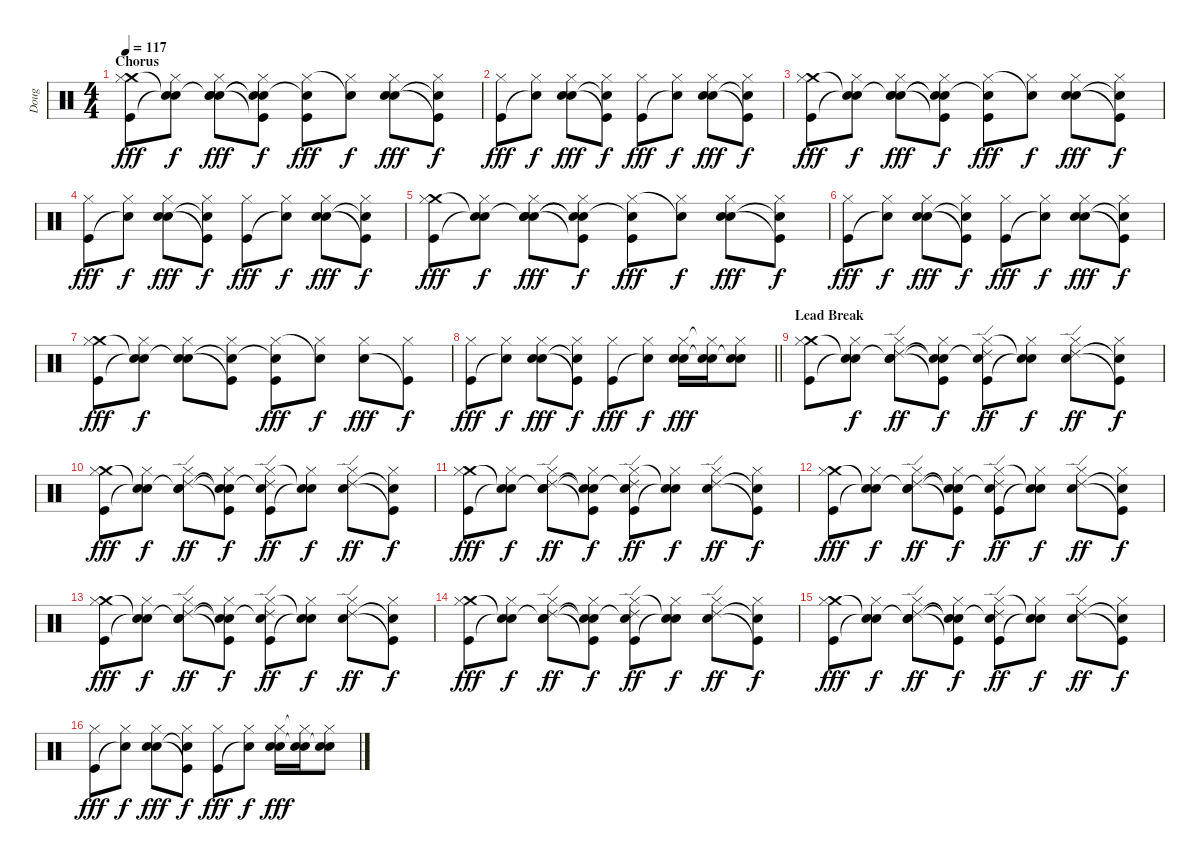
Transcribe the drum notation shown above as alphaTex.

\track ("Doug" "Doug") {instrument percussion}
\staff {score}
\articulation defaults
\ts (4 4)
\section ("" "Chorus")
\tempo 117
\clef neutral
\ks c
("Crash medium (hit)" "Hi-Hat (closed)" "Kick (hit)").8{dy fff} ("Snare (hit)"{t} "Hi-Hat (closed)" "Snare (hit)"{t}).8{dy f} ("Snare (hit)"{t} "Hi-Hat (closed)" "Snare (hit) 2" "Hand Clap (hit)").8{dy fff} ("Snare (hit)"{t} "Hi-Hat (closed)" "Kick (hit)"{t} "Snare (hit)"{t}).8{dy f} ("Snare (hit)"{t} "Hi-Hat (closed)" "Kick (hit)").8{dy fff} ("Hi-Hat (closed)" "Snare (hit)"{t}).8{dy f} ("Hi-Hat (closed)" "Snare (hit) 2" "Hand Clap (hit)").8{dy fff} ("Hi-Hat (closed)" "Kick (hit)"{t} "Snare (hit)"{t}).8{dy f} |
("Hi-Hat (closed)" "Kick (hit)").8{dy fff} ("Hi-Hat (closed)" "Snare (hit)"{t}).8{dy f} ("Hand Clap (hit)" "Hi-Hat (closed)" "Snare (hit) 2").8{dy fff} ("Snare (hit)"{t} "Hi-Hat (closed)" "Kick (hit)"{t}).8{dy f} ("Hi-Hat (closed)" "Kick (hit)").8{dy fff} ("Hi-Hat (closed)" "Snare (hit)"{t}).8{dy f} ("Hand Clap (hit)" "Hi-Hat (closed)" "Snare (hit) 2").8{dy fff} ("Snare (hit)"{t} "Hi-Hat (closed)" "Kick (hit)"{t}).8{dy f} |
("Crash medium (hit)" "Hi-Hat (closed)" "Kick (hit)").8{dy fff} ("Snare (hit)"{t} "Hi-Hat (closed)" "Snare (hit)"{t}).8{dy f} ("Snare (hit)"{t} "Hi-Hat (closed)" "Snare (hit) 2" "Hand Clap (hit)").8{dy fff} ("Snare (hit)"{t} "Hi-Hat (closed)" "Kick (hit)"{t} "Snare (hit)"{t}).8{dy f} ("Snare (hit)"{t} "Hi-Hat (closed)" "Kick (hit)").8{dy fff} ("Hi-Hat (closed)" "Snare (hit)"{t}).8{dy f} ("Hi-Hat (closed)" "Snare (hit) 2" "Hand Clap (hit)").8{dy fff} ("Hi-Hat (closed)" "Kick (hit)"{t} "Snare (hit)"{t}).8{dy f} |
("Hi-Hat (closed)" "Kick (hit)").8{dy fff} ("Hi-Hat (closed)" "Snare (hit)"{t}).8{dy f} ("Hand Clap (hit)" "Hi-Hat (closed)" "Snare (hit) 2").8{dy fff} ("Snare (hit)"{t} "Hi-Hat (closed)" "Kick (hit)"{t}).8{dy f} ("Hi-Hat (closed)" "Kick (hit)").8{dy fff} ("Hi-Hat (closed)" "Snare (hit)"{t}).8{dy f} ("Hand Clap (hit)" "Hi-Hat (closed)" "Snare (hit) 2").8{dy fff} ("Snare (hit)"{t} "Hi-Hat (closed)" "Kick (hit)"{t}).8{dy f} |
("Crash medium (hit)" "Hi-Hat (closed)" "Kick (hit)").8{dy fff} ("Snare (hit)"{t} "Hi-Hat (closed)" "Snare (hit)"{t}).8{dy f} ("Snare (hit)"{t} "Hi-Hat (closed)" "Snare (hit) 2" "Hand Clap (hit)").8{dy fff} ("Snare (hit)"{t} "Hi-Hat (closed)" "Kick (hit)"{t} "Snare (hit)"{t}).8{dy f} ("Snare (hit)"{t} "Hi-Hat (closed)" "Kick (hit)").8{dy fff} ("Hi-Hat (closed)" "Snare (hit)"{t}).8{dy f} ("Hi-Hat (closed)" "Snare (hit) 2" "Hand Clap (hit)").8{dy fff} ("Hi-Hat (closed)" "Kick (hit)"{t} "Snare (hit)"{t}).8{dy f} |
("Hi-Hat (closed)" "Kick (hit)").8{dy fff} ("Hi-Hat (closed)" "Snare (hit)"{t}).8{dy f} ("Hand Clap (hit)" "Hi-Hat (closed)" "Snare (hit) 2").8{dy fff} ("Snare (hit)"{t} "Hi-Hat (closed)" "Kick (hit)"{t}).8{dy f} ("Hi-Hat (closed)" "Kick (hit)").8{dy fff} ("Hi-Hat (closed)" "Snare (hit)"{t}).8{dy f} ("Hand Clap (hit)" "Hi-Hat (closed)" "Snare (hit) 2").8{dy fff} ("Snare (hit)"{t} "Hi-Hat (closed)" "Kick (hit)"{t}).8{dy f} |
("Crash medium (hit)" "Hi-Hat (closed)" "Kick (hit)").8{dy fff} ("Snare (hit)"{t} "Hi-Hat (closed)" "Snare (hit)"{t}).8{dy f} ("Snare (hit)"{t} "Hi-Hat (closed)" "Snare (hit) 2").8 ("Snare (hit)"{t} "Hi-Hat (closed)" "Kick (hit)"{t}).8 ("Snare (hit)"{t} "Hi-Hat (closed)" "Kick (hit)").8{dy fff} ("Hi-Hat (closed)" "Snare (hit)"{t}).8{dy f} ("Hi-Hat (closed)" "Snare (hit) 2").8{dy fff} ("Hi-Hat (closed)" "Kick (hit)"{t}).8{dy f} |
\barLineRight lightlight
("Hi-Hat (closed)" "Kick (hit)").8{dy fff} ("Hi-Hat (closed)" "Snare (hit)"{t}).8{dy f} ("Hand Clap (hit)" "Hi-Hat (closed)" "Snare (hit) 2").8{dy fff} ("Snare (hit)"{t} "Hi-Hat (closed)" "Kick (hit)"{t}).8{dy f} ("Hi-Hat (closed)" "Kick (hit)").8{dy fff} ("Hi-Hat (closed)" "Snare (hit)"{t}).8{dy f} ("Hand Clap (hit)" "Hi-Hat (closed)" "Snare (hit) 2").16{dy fff} ("Snare (hit)"{t} "Hi-Hat (closed)"{t} "Snare (hit) 2").16 ("Snare (hit)"{t} "Hi-Hat (closed)" "Snare (hit) 2").8 |
\section ("" "Lead Break")
("Crash medium (hit)" "Hi-Hat (closed)" "Kick (hit)").8 ("Snare (hit)"{t} "Hi-Hat (closed)" "Snare (hit)"{t}).8{dy f} ("Snare (hit)"{t} "Hi-Hat (closed)" "Snare (hit) 2" "Ride (edge) 2").8{dy ff} ("Snare (hit)"{t} "Hi-Hat (closed)" "Kick (hit)"{t} "Snare (hit)"{t}).8{dy f} ("Snare (hit)"{t} "Hi-Hat (closed)" "Kick (hit)" "Ride (edge) 2").8{dy ff} ("Hi-Hat (closed)" "Snare (hit)"{t} "Snare (hit)"{t}).8{dy f} ("Hi-Hat (closed)" "Snare (hit) 2" "Ride (edge) 2").8{dy ff} ("Hi-Hat (closed)" "Kick (hit)"{t} "Snare (hit)"{t}).8{dy f} |
("Crash medium (hit)" "Hi-Hat (closed)" "Kick (hit)").8{dy fff} ("Snare (hit)"{t} "Hi-Hat (closed)" "Snare (hit)"{t}).8{dy f} ("Snare (hit)"{t} "Hi-Hat (closed)" "Snare (hit) 2" "Ride (edge) 2").8{dy ff} ("Snare (hit)"{t} "Hi-Hat (closed)" "Kick (hit)"{t} "Snare (hit)"{t}).8{dy f} ("Snare (hit)"{t} "Hi-Hat (closed)" "Kick (hit)" "Ride (edge) 2").8{dy ff} ("Hi-Hat (closed)" "Snare (hit)"{t} "Snare (hit)"{t}).8{dy f} ("Hi-Hat (closed)" "Snare (hit) 2" "Ride (edge) 2").8{dy ff} ("Hi-Hat (closed)" "Kick (hit)"{t} "Snare (hit)"{t}).8{dy f} |
("Crash medium (hit)" "Hi-Hat (closed)" "Kick (hit)").8{dy fff} ("Snare (hit)"{t} "Hi-Hat (closed)" "Snare (hit)"{t}).8{dy f} ("Snare (hit)"{t} "Hi-Hat (closed)" "Snare (hit) 2" "Ride (edge) 2").8{dy ff} ("Snare (hit)"{t} "Hi-Hat (closed)" "Kick (hit)"{t} "Snare (hit)"{t}).8{dy f} ("Snare (hit)"{t} "Hi-Hat (closed)" "Kick (hit)" "Ride (edge) 2").8{dy ff} ("Hi-Hat (closed)" "Snare (hit)"{t} "Snare (hit)"{t}).8{dy f} ("Hi-Hat (closed)" "Snare (hit) 2" "Ride (edge) 2").8{dy ff} ("Hi-Hat (closed)" "Kick (hit)"{t} "Snare (hit)"{t}).8{dy f} |
("Crash medium (hit)" "Hi-Hat (closed)" "Kick (hit)").8{dy fff} ("Snare (hit)"{t} "Hi-Hat (closed)" "Snare (hit)"{t}).8{dy f} ("Snare (hit)"{t} "Hi-Hat (closed)" "Snare (hit) 2" "Ride (edge) 2").8{dy ff} ("Snare (hit)"{t} "Hi-Hat (closed)" "Kick (hit)"{t} "Snare (hit)"{t}).8{dy f} ("Snare (hit)"{t} "Hi-Hat (closed)" "Kick (hit)" "Ride (edge) 2").8{dy ff} ("Hi-Hat (closed)" "Snare (hit)"{t} "Snare (hit)"{t}).8{dy f} ("Hi-Hat (closed)" "Snare (hit) 2" "Ride (edge) 2").8{dy ff} ("Hi-Hat (closed)" "Kick (hit)"{t} "Snare (hit)"{t}).8{dy f} |
("Crash medium (hit)" "Hi-Hat (closed)" "Kick (hit)").8{dy fff} ("Snare (hit)"{t} "Hi-Hat (closed)" "Snare (hit)"{t}).8{dy f} ("Snare (hit)"{t} "Hi-Hat (closed)" "Snare (hit) 2" "Ride (edge) 2").8{dy ff} ("Snare (hit)"{t} "Hi-Hat (closed)" "Kick (hit)"{t} "Snare (hit)"{t}).8{dy f} ("Snare (hit)"{t} "Hi-Hat (closed)" "Kick (hit)" "Ride (edge) 2").8{dy ff} ("Hi-Hat (closed)" "Snare (hit)"{t} "Snare (hit)"{t}).8{dy f} ("Hi-Hat (closed)" "Snare (hit) 2" "Ride (edge) 2").8{dy ff} ("Hi-Hat (closed)" "Kick (hit)"{t} "Snare (hit)"{t}).8{dy f} |
("Crash medium (hit)" "Hi-Hat (closed)" "Kick (hit)").8{dy fff} ("Snare (hit)"{t} "Hi-Hat (closed)" "Snare (hit)"{t}).8{dy f} ("Snare (hit)"{t} "Hi-Hat (closed)" "Snare (hit) 2" "Ride (edge) 2").8{dy ff} ("Snare (hit)"{t} "Hi-Hat (closed)" "Kick (hit)"{t} "Snare (hit)"{t}).8{dy f} ("Snare (hit)"{t} "Hi-Hat (closed)" "Kick (hit)" "Ride (edge) 2").8{dy ff} ("Hi-Hat (closed)" "Snare (hit)"{t} "Snare (hit)"{t}).8{dy f} ("Hi-Hat (closed)" "Snare (hit) 2" "Ride (edge) 2").8{dy ff} ("Hi-Hat (closed)" "Kick (hit)"{t} "Snare (hit)"{t}).8{dy f} |
("Crash medium (hit)" "Hi-Hat (closed)" "Kick (hit)").8{dy fff} ("Snare (hit)"{t} "Hi-Hat (closed)" "Snare (hit)"{t}).8{dy f} ("Snare (hit)"{t} "Hi-Hat (closed)" "Snare (hit) 2" "Ride (edge) 2").8{dy ff} ("Snare (hit)"{t} "Hi-Hat (closed)" "Kick (hit)"{t} "Snare (hit)"{t}).8{dy f} ("Snare (hit)"{t} "Hi-Hat (closed)" "Kick (hit)" "Ride (edge) 2").8{dy ff} ("Hi-Hat (closed)" "Snare (hit)"{t} "Snare (hit)"{t}).8{dy f} ("Hi-Hat (closed)" "Snare (hit) 2" "Ride (edge) 2").8{dy ff} ("Hi-Hat (closed)" "Kick (hit)"{t} "Snare (hit)"{t}).8{dy f} |
("Hi-Hat (closed)" "Kick (hit)").8{dy fff} ("Hi-Hat (closed)" "Snare (hit)"{t}).8{dy f} ("Hand Clap (hit)" "Hi-Hat (closed)" "Snare (hit) 2").8{dy fff} ("Snare (hit)"{t} "Hi-Hat (closed)" "Kick (hit)"{t}).8{dy f} ("Hi-Hat (closed)" "Kick (hit)").8{dy fff} ("Hi-Hat (closed)" "Snare (hit)"{t}).8{dy f} ("Hand Clap (hit)" "Hi-Hat (closed)" "Snare (hit) 2").16{dy fff} ("Snare (hit)"{t} "Hi-Hat (closed)"{t} "Snare (hit) 2").16 ("Snare (hit)"{t} "Hi-Hat (closed)" "Snare (hit) 2").8
